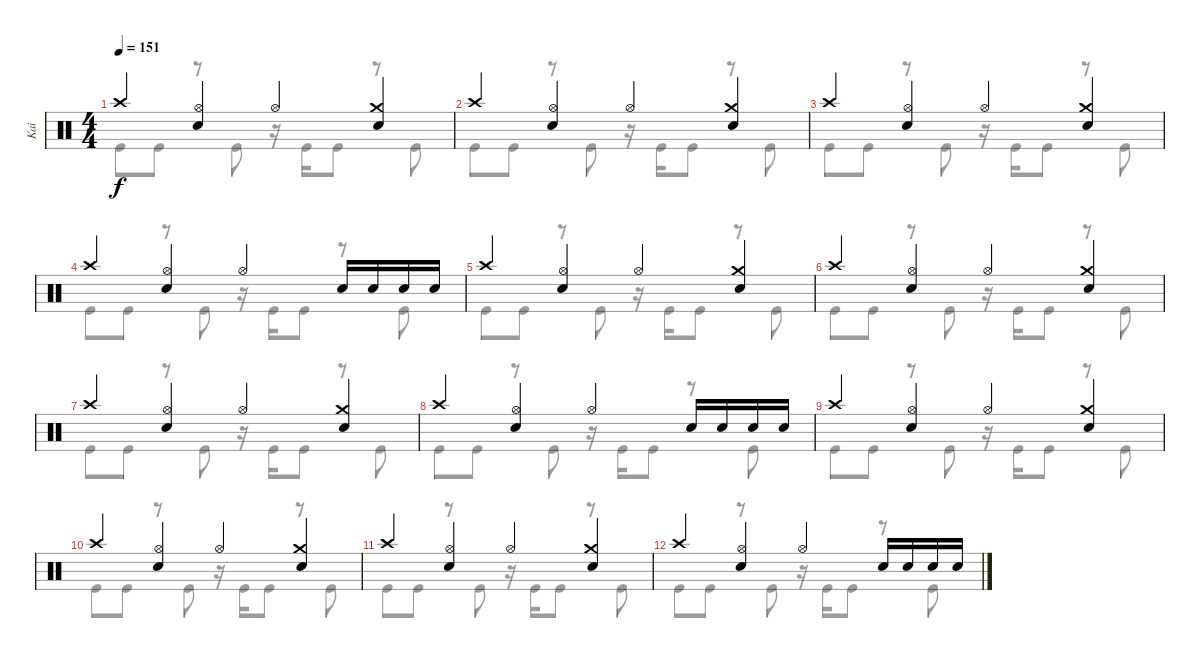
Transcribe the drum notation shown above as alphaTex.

\track ("Kai" "Kai") {instrument percussion}
\staff {score}
\articulation defaults
\voice
\ts (4 4)
\tempo 151
\clef neutral
\ks c "Crash high (hit)".4{dy f}
("Hi-Hat (open)" "Electric Snare (hit)").4 "Hi-Hat (open)".4 ("Crash medium (hit)" "Electric Snare (hit)").4 |
"Crash high (hit)".4 ("Hi-Hat (open)" "Electric Snare (hit)").4 "Hi-Hat (open)".4 ("Crash medium (hit)" "Electric Snare (hit)").4 |
"Crash high (hit)".4 ("Hi-Hat (open)" "Electric Snare (hit)").4 "Hi-Hat (open)".4 ("Crash medium (hit)" "Electric Snare (hit)").4 |
"Crash high (hit)".4 ("Hi-Hat (open)" "Electric Snare (hit)").4 "Hi-Hat (open)".4 "Electric Snare (hit)".16 "Electric Snare (hit)".16 "Electric Snare (hit)".16 "Electric Snare (hit)".16 |
"Crash high (hit)".4 ("Hi-Hat (open)" "Electric Snare (hit)").4 "Hi-Hat (open)".4 ("Crash medium (hit)" "Electric Snare (hit)").4 |
"Crash high (hit)".4 ("Hi-Hat (open)" "Electric Snare (hit)").4 "Hi-Hat (open)".4 ("Crash medium (hit)" "Electric Snare (hit)").4 |
"Crash high (hit)".4 ("Hi-Hat (open)" "Electric Snare (hit)").4 "Hi-Hat (open)".4 ("Crash medium (hit)" "Electric Snare (hit)").4 |
"Crash high (hit)".4 ("Hi-Hat (open)" "Electric Snare (hit)").4 "Hi-Hat (open)".4 "Electric Snare (hit)".16 "Electric Snare (hit)".16 "Electric Snare (hit)".16 "Electric Snare (hit)".16 |
"Crash high (hit)".4 ("Hi-Hat (open)" "Electric Snare (hit)").4 "Hi-Hat (open)".4 ("Crash medium (hit)" "Electric Snare (hit)").4 |
"Crash high (hit)".4 ("Hi-Hat (open)" "Electric Snare (hit)").4 "Hi-Hat (open)".4 ("Crash medium (hit)" "Electric Snare (hit)").4 |
"Crash high (hit)".4 ("Hi-Hat (open)" "Electric Snare (hit)").4 "Hi-Hat (open)".4 ("Crash medium (hit)" "Electric Snare (hit)").4 |
"Crash high (hit)".4 ("Hi-Hat (open)" "Electric Snare (hit)").4 "Hi-Hat (open)".4 "Electric Snare (hit)".16 "Electric Snare (hit)".16 "Electric Snare (hit)".16 "Electric Snare (hit)".16 |
|
|
|
\voice
\clef neutral
\ottava regular
\simile none
\ks c "Kick (hit)".8{dy f} "Kick (hit)".8
r.8 "Kick (hit)".8 r.16 "Kick (hit)".16 "Kick (hit)".8 r.8 "Kick (hit)".8 |
"Kick (hit)".8 "Kick (hit)".8 r.8 "Kick (hit)".8 r.16 "Kick (hit)".16 "Kick (hit)".8 r.8 "Kick (hit)".8 |
"Kick (hit)".8 "Kick (hit)".8 r.8 "Kick (hit)".8 r.16 "Kick (hit)".16 "Kick (hit)".8 r.8 "Kick (hit)".8 |
"Kick (hit)".8 "Kick (hit)".8 r.8 "Kick (hit)".8 r.16 "Kick (hit)".16 "Kick (hit)".8 r.8 "Kick (hit)".8 |
"Kick (hit)".8 "Kick (hit)".8 r.8 "Kick (hit)".8 r.16 "Kick (hit)".16 "Kick (hit)".8 r.8 "Kick (hit)".8 |
"Kick (hit)".8 "Kick (hit)".8 r.8 "Kick (hit)".8 r.16 "Kick (hit)".16 "Kick (hit)".8 r.8 "Kick (hit)".8 |
"Kick (hit)".8 "Kick (hit)".8 r.8 "Kick (hit)".8 r.16 "Kick (hit)".16 "Kick (hit)".8 r.8 "Kick (hit)".8 |
"Kick (hit)".8 "Kick (hit)".8 r.8 "Kick (hit)".8 r.16 "Kick (hit)".16 "Kick (hit)".8 r.8 "Kick (hit)".8 |
"Kick (hit)".8 "Kick (hit)".8 r.8 "Kick (hit)".8 r.16 "Kick (hit)".16 "Kick (hit)".8 r.8 "Kick (hit)".8 |
"Kick (hit)".8 "Kick (hit)".8 r.8 "Kick (hit)".8 r.16 "Kick (hit)".16 "Kick (hit)".8 r.8 "Kick (hit)".8 |
"Kick (hit)".8 "Kick (hit)".8 r.8 "Kick (hit)".8 r.16 "Kick (hit)".16 "Kick (hit)".8 r.8 "Kick (hit)".8 |
"Kick (hit)".8 "Kick (hit)".8 r.8 "Kick (hit)".8 r.16 "Kick (hit)".16 "Kick (hit)".8 r.8 "Kick (hit)".8 |
|
|
|
